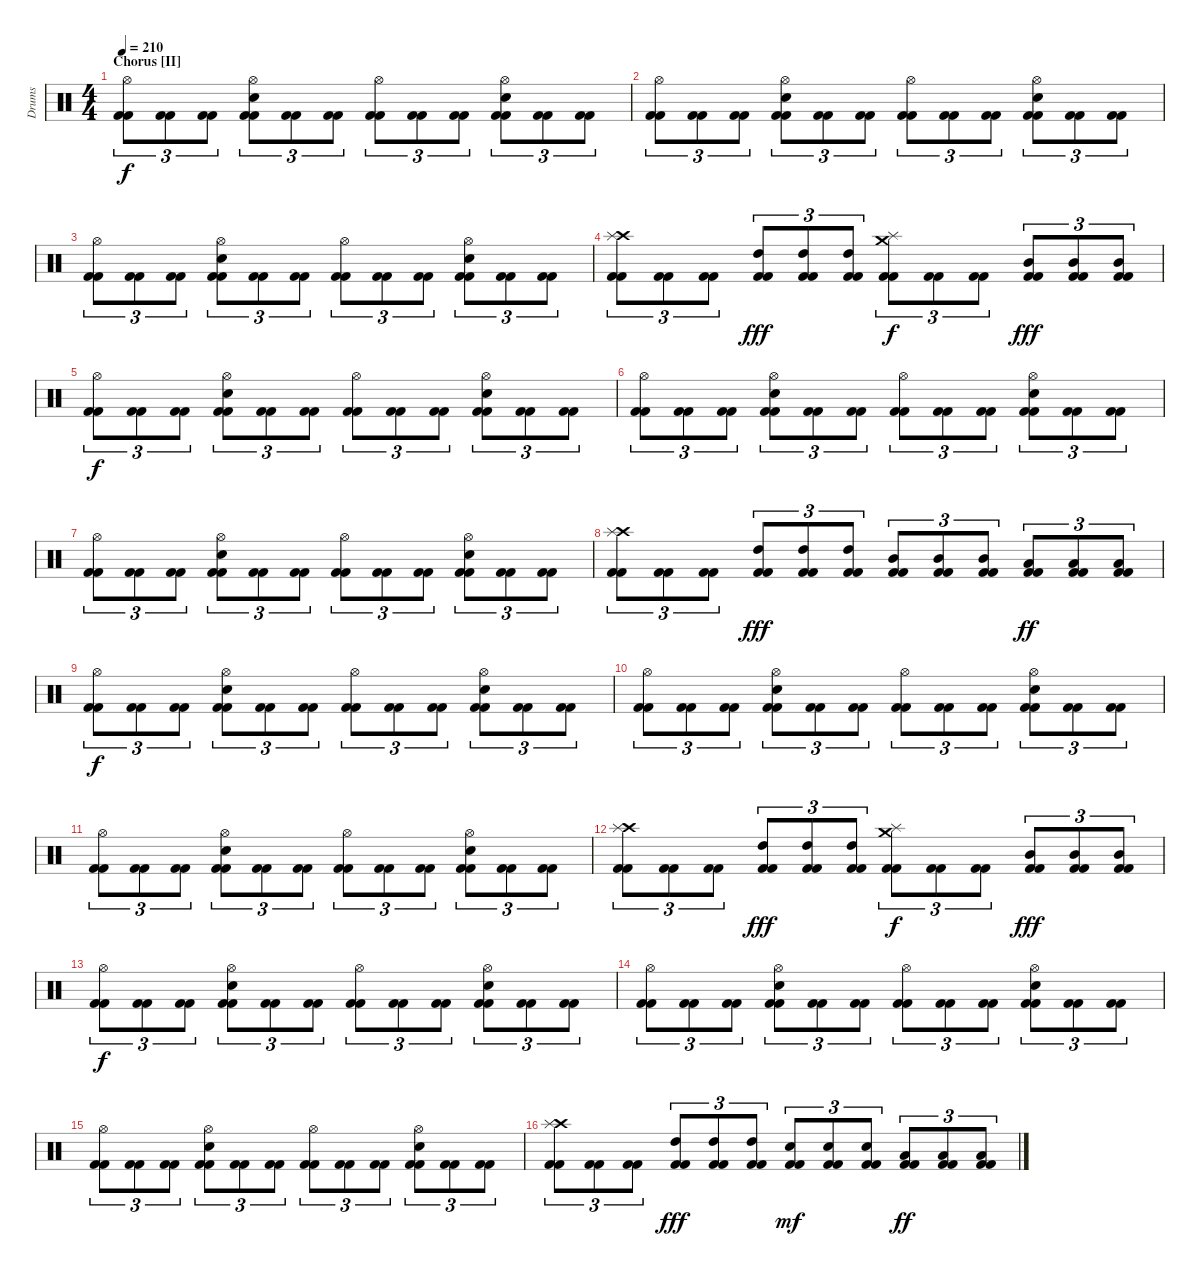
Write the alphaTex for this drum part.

\track ("Drums" "Drums") {instrument percussion}
\staff {score}
\articulation defaults
\ts (4 4)
\section ("" "Chorus [II]")
\tempo 210
\clef neutral
\ks c
("Hi-Hat (open)" "Kick (hit) 2" "Kick (hit) 2").8{tu (3 2) dy f} ("Kick (hit) 2" "Kick (hit) 2").8{tu (3 2)} ("Kick (hit) 2" "Kick (hit) 2").8{tu (3 2)} ("Hi-Hat (open)" "Snare (hit) 2" "Kick (hit) 2" "Kick (hit) 2").8{tu (3 2)} ("Kick (hit) 2" "Kick (hit) 2").8{tu (3 2)} ("Kick (hit) 2" "Kick (hit) 2").8{tu (3 2)} ("Hi-Hat (open)" "Kick (hit) 2" "Kick (hit) 2").8{tu (3 2)} ("Kick (hit) 2" "Kick (hit) 2").8{tu (3 2)} ("Kick (hit) 2" "Kick (hit) 2").8{tu (3 2)} ("Hi-Hat (open)" "Snare (hit) 2" "Kick (hit) 2" "Kick (hit) 2").8{tu (3 2)} ("Kick (hit) 2" "Kick (hit) 2").8{tu (3 2)} ("Kick (hit) 2" "Kick (hit) 2").8{tu (3 2)} |
("Hi-Hat (open)" "Kick (hit) 2" "Kick (hit) 2").8{tu (3 2)} ("Kick (hit) 2" "Kick (hit) 2").8{tu (3 2)} ("Kick (hit) 2" "Kick (hit) 2").8{tu (3 2)} ("Hi-Hat (open)" "Snare (hit) 2" "Kick (hit) 2" "Kick (hit) 2").8{tu (3 2)} ("Kick (hit) 2" "Kick (hit) 2").8{tu (3 2)} ("Kick (hit) 2" "Kick (hit) 2").8{tu (3 2)} ("Hi-Hat (open)" "Kick (hit) 2" "Kick (hit) 2").8{tu (3 2)} ("Kick (hit) 2" "Kick (hit) 2").8{tu (3 2)} ("Kick (hit) 2" "Kick (hit) 2").8{tu (3 2)} ("Hi-Hat (open)" "Snare (hit) 2" "Kick (hit) 2" "Kick (hit) 2").8{tu (3 2)} ("Kick (hit) 2" "Kick (hit) 2").8{tu (3 2)} ("Kick (hit) 2" "Kick (hit) 2").8{tu (3 2)} |
("Hi-Hat (open)" "Kick (hit) 2" "Kick (hit) 2").8{tu (3 2)} ("Kick (hit) 2" "Kick (hit) 2").8{tu (3 2)} ("Kick (hit) 2" "Kick (hit) 2").8{tu (3 2)} ("Hi-Hat (open)" "Snare (hit) 2" "Kick (hit) 2" "Kick (hit) 2").8{tu (3 2)} ("Kick (hit) 2" "Kick (hit) 2").8{tu (3 2)} ("Kick (hit) 2" "Kick (hit) 2").8{tu (3 2)} ("Hi-Hat (open)" "Kick (hit) 2" "Kick (hit) 2").8{tu (3 2)} ("Kick (hit) 2" "Kick (hit) 2").8{tu (3 2)} ("Kick (hit) 2" "Kick (hit) 2").8{tu (3 2)} ("Hi-Hat (open)" "Snare (hit) 2" "Kick (hit) 2" "Kick (hit) 2").8{tu (3 2)} ("Kick (hit) 2" "Kick (hit) 2").8{tu (3 2)} ("Kick (hit) 2" "Kick (hit) 2").8{tu (3 2)} |
("Crash high (hit)" "Splash (hit)" "Kick (hit) 2" "Kick (hit) 2").8{tu (3 2)} ("Kick (hit) 2" "Kick (hit) 2").8{tu (3 2)} ("Kick (hit) 2" "Kick (hit) 2").8{tu (3 2)} ("High Tom (hit)" "Kick (hit) 2" "Kick (hit) 2").8{tu (3 2) dy fff} ("High Tom (hit)" "Kick (hit) 2" "Kick (hit) 2").8{tu (3 2)} ("High Tom (hit)" "Kick (hit) 2" "Kick (hit) 2").8{tu (3 2)} ("Crash medium (hit)" "Splash (hit)" "Kick (hit) 2" "Kick (hit) 2").8{tu (3 2) dy f} ("Kick (hit) 2" "Kick (hit) 2").8{tu (3 2)} ("Kick (hit) 2" "Kick (hit) 2").8{tu (3 2)} ("Mid Tom (hit)" "Kick (hit) 2" "Kick (hit) 2").8{tu (3 2) dy fff} ("Mid Tom (hit)" "Kick (hit) 2" "Kick (hit) 2").8{tu (3 2)} ("Mid Tom (hit)" "Kick (hit) 2" "Kick (hit) 2").8{tu (3 2)} |
("Hi-Hat (open)" "Kick (hit) 2" "Kick (hit) 2").8{tu (3 2) dy f} ("Kick (hit) 2" "Kick (hit) 2").8{tu (3 2)} ("Kick (hit) 2" "Kick (hit) 2").8{tu (3 2)} ("Hi-Hat (open)" "Snare (hit) 2" "Kick (hit) 2" "Kick (hit) 2").8{tu (3 2)} ("Kick (hit) 2" "Kick (hit) 2").8{tu (3 2)} ("Kick (hit) 2" "Kick (hit) 2").8{tu (3 2)} ("Hi-Hat (open)" "Kick (hit) 2" "Kick (hit) 2").8{tu (3 2)} ("Kick (hit) 2" "Kick (hit) 2").8{tu (3 2)} ("Kick (hit) 2" "Kick (hit) 2").8{tu (3 2)} ("Hi-Hat (open)" "Snare (hit) 2" "Kick (hit) 2" "Kick (hit) 2").8{tu (3 2)} ("Kick (hit) 2" "Kick (hit) 2").8{tu (3 2)} ("Kick (hit) 2" "Kick (hit) 2").8{tu (3 2)} |
("Hi-Hat (open)" "Kick (hit) 2" "Kick (hit) 2").8{tu (3 2)} ("Kick (hit) 2" "Kick (hit) 2").8{tu (3 2)} ("Kick (hit) 2" "Kick (hit) 2").8{tu (3 2)} ("Hi-Hat (open)" "Snare (hit) 2" "Kick (hit) 2" "Kick (hit) 2").8{tu (3 2)} ("Kick (hit) 2" "Kick (hit) 2").8{tu (3 2)} ("Kick (hit) 2" "Kick (hit) 2").8{tu (3 2)} ("Hi-Hat (open)" "Kick (hit) 2" "Kick (hit) 2").8{tu (3 2)} ("Kick (hit) 2" "Kick (hit) 2").8{tu (3 2)} ("Kick (hit) 2" "Kick (hit) 2").8{tu (3 2)} ("Hi-Hat (open)" "Snare (hit) 2" "Kick (hit) 2" "Kick (hit) 2").8{tu (3 2)} ("Kick (hit) 2" "Kick (hit) 2").8{tu (3 2)} ("Kick (hit) 2" "Kick (hit) 2").8{tu (3 2)} |
("Hi-Hat (open)" "Kick (hit) 2" "Kick (hit) 2").8{tu (3 2)} ("Kick (hit) 2" "Kick (hit) 2").8{tu (3 2)} ("Kick (hit) 2" "Kick (hit) 2").8{tu (3 2)} ("Hi-Hat (open)" "Snare (hit) 2" "Kick (hit) 2" "Kick (hit) 2").8{tu (3 2)} ("Kick (hit) 2" "Kick (hit) 2").8{tu (3 2)} ("Kick (hit) 2" "Kick (hit) 2").8{tu (3 2)} ("Hi-Hat (open)" "Kick (hit) 2" "Kick (hit) 2").8{tu (3 2)} ("Kick (hit) 2" "Kick (hit) 2").8{tu (3 2)} ("Kick (hit) 2" "Kick (hit) 2").8{tu (3 2)} ("Hi-Hat (open)" "Snare (hit) 2" "Kick (hit) 2" "Kick (hit) 2").8{tu (3 2)} ("Kick (hit) 2" "Kick (hit) 2").8{tu (3 2)} ("Kick (hit) 2" "Kick (hit) 2").8{tu (3 2)} |
("Crash high (hit)" "Splash (hit)" "Kick (hit) 2" "Kick (hit) 2").8{tu (3 2)} ("Kick (hit) 2" "Kick (hit) 2").8{tu (3 2)} ("Kick (hit) 2" "Kick (hit) 2").8{tu (3 2)} ("High Tom (hit)" "Kick (hit) 2" "Kick (hit) 2").8{tu (3 2) dy fff} ("High Tom (hit)" "Kick (hit) 2" "Kick (hit) 2").8{tu (3 2)} ("High Tom (hit)" "Kick (hit) 2" "Kick (hit) 2").8{tu (3 2)} ("Mid Tom (hit)" "Kick (hit) 2" "Kick (hit) 2").8{tu (3 2)} ("Mid Tom (hit)" "Kick (hit) 2" "Kick (hit) 2").8{tu (3 2)} ("Mid Tom (hit)" "Kick (hit) 2" "Kick (hit) 2").8{tu (3 2)} ("Low Tom (hit)" "Kick (hit) 2" "Kick (hit) 2").8{tu (3 2) dy ff} ("Low Tom (hit)" "Kick (hit) 2" "Kick (hit) 2").8{tu (3 2)} ("Low Tom (hit)" "Kick (hit) 2" "Kick (hit) 2").8{tu (3 2)} |
("Hi-Hat (open)" "Kick (hit) 2" "Kick (hit) 2").8{tu (3 2) dy f} ("Kick (hit) 2" "Kick (hit) 2").8{tu (3 2)} ("Kick (hit) 2" "Kick (hit) 2").8{tu (3 2)} ("Hi-Hat (open)" "Snare (hit) 2" "Kick (hit) 2" "Kick (hit) 2").8{tu (3 2)} ("Kick (hit) 2" "Kick (hit) 2").8{tu (3 2)} ("Kick (hit) 2" "Kick (hit) 2").8{tu (3 2)} ("Hi-Hat (open)" "Kick (hit) 2" "Kick (hit) 2").8{tu (3 2)} ("Kick (hit) 2" "Kick (hit) 2").8{tu (3 2)} ("Kick (hit) 2" "Kick (hit) 2").8{tu (3 2)} ("Hi-Hat (open)" "Snare (hit) 2" "Kick (hit) 2" "Kick (hit) 2").8{tu (3 2)} ("Kick (hit) 2" "Kick (hit) 2").8{tu (3 2)} ("Kick (hit) 2" "Kick (hit) 2").8{tu (3 2)} |
("Hi-Hat (open)" "Kick (hit) 2" "Kick (hit) 2").8{tu (3 2)} ("Kick (hit) 2" "Kick (hit) 2").8{tu (3 2)} ("Kick (hit) 2" "Kick (hit) 2").8{tu (3 2)} ("Hi-Hat (open)" "Snare (hit) 2" "Kick (hit) 2" "Kick (hit) 2").8{tu (3 2)} ("Kick (hit) 2" "Kick (hit) 2").8{tu (3 2)} ("Kick (hit) 2" "Kick (hit) 2").8{tu (3 2)} ("Hi-Hat (open)" "Kick (hit) 2" "Kick (hit) 2").8{tu (3 2)} ("Kick (hit) 2" "Kick (hit) 2").8{tu (3 2)} ("Kick (hit) 2" "Kick (hit) 2").8{tu (3 2)} ("Hi-Hat (open)" "Snare (hit) 2" "Kick (hit) 2" "Kick (hit) 2").8{tu (3 2)} ("Kick (hit) 2" "Kick (hit) 2").8{tu (3 2)} ("Kick (hit) 2" "Kick (hit) 2").8{tu (3 2)} |
("Hi-Hat (open)" "Kick (hit) 2" "Kick (hit) 2").8{tu (3 2)} ("Kick (hit) 2" "Kick (hit) 2").8{tu (3 2)} ("Kick (hit) 2" "Kick (hit) 2").8{tu (3 2)} ("Hi-Hat (open)" "Snare (hit) 2" "Kick (hit) 2" "Kick (hit) 2").8{tu (3 2)} ("Kick (hit) 2" "Kick (hit) 2").8{tu (3 2)} ("Kick (hit) 2" "Kick (hit) 2").8{tu (3 2)} ("Hi-Hat (open)" "Kick (hit) 2" "Kick (hit) 2").8{tu (3 2)} ("Kick (hit) 2" "Kick (hit) 2").8{tu (3 2)} ("Kick (hit) 2" "Kick (hit) 2").8{tu (3 2)} ("Hi-Hat (open)" "Snare (hit) 2" "Kick (hit) 2" "Kick (hit) 2").8{tu (3 2)} ("Kick (hit) 2" "Kick (hit) 2").8{tu (3 2)} ("Kick (hit) 2" "Kick (hit) 2").8{tu (3 2)} |
("Crash high (hit)" "Splash (hit)" "Kick (hit) 2" "Kick (hit) 2").8{tu (3 2)} ("Kick (hit) 2" "Kick (hit) 2").8{tu (3 2)} ("Kick (hit) 2" "Kick (hit) 2").8{tu (3 2)} ("High Tom (hit)" "Kick (hit) 2" "Kick (hit) 2").8{tu (3 2) dy fff} ("High Tom (hit)" "Kick (hit) 2" "Kick (hit) 2").8{tu (3 2)} ("High Tom (hit)" "Kick (hit) 2" "Kick (hit) 2").8{tu (3 2)} ("Crash medium (hit)" "Splash (hit)" "Kick (hit) 2" "Kick (hit) 2").8{tu (3 2) dy f} ("Kick (hit) 2" "Kick (hit) 2").8{tu (3 2)} ("Kick (hit) 2" "Kick (hit) 2").8{tu (3 2)} ("Mid Tom (hit)" "Kick (hit) 2" "Kick (hit) 2").8{tu (3 2) dy fff} ("Mid Tom (hit)" "Kick (hit) 2" "Kick (hit) 2").8{tu (3 2)} ("Mid Tom (hit)" "Kick (hit) 2" "Kick (hit) 2").8{tu (3 2)} |
("Hi-Hat (open)" "Kick (hit) 2" "Kick (hit) 2").8{tu (3 2) dy f} ("Kick (hit) 2" "Kick (hit) 2").8{tu (3 2)} ("Kick (hit) 2" "Kick (hit) 2").8{tu (3 2)} ("Hi-Hat (open)" "Snare (hit) 2" "Kick (hit) 2" "Kick (hit) 2").8{tu (3 2)} ("Kick (hit) 2" "Kick (hit) 2").8{tu (3 2)} ("Kick (hit) 2" "Kick (hit) 2").8{tu (3 2)} ("Hi-Hat (open)" "Kick (hit) 2" "Kick (hit) 2").8{tu (3 2)} ("Kick (hit) 2" "Kick (hit) 2").8{tu (3 2)} ("Kick (hit) 2" "Kick (hit) 2").8{tu (3 2)} ("Hi-Hat (open)" "Snare (hit) 2" "Kick (hit) 2" "Kick (hit) 2").8{tu (3 2)} ("Kick (hit) 2" "Kick (hit) 2").8{tu (3 2)} ("Kick (hit) 2" "Kick (hit) 2").8{tu (3 2)} |
("Hi-Hat (open)" "Kick (hit) 2" "Kick (hit) 2").8{tu (3 2)} ("Kick (hit) 2" "Kick (hit) 2").8{tu (3 2)} ("Kick (hit) 2" "Kick (hit) 2").8{tu (3 2)} ("Hi-Hat (open)" "Snare (hit) 2" "Kick (hit) 2" "Kick (hit) 2").8{tu (3 2)} ("Kick (hit) 2" "Kick (hit) 2").8{tu (3 2)} ("Kick (hit) 2" "Kick (hit) 2").8{tu (3 2)} ("Hi-Hat (open)" "Kick (hit) 2" "Kick (hit) 2").8{tu (3 2)} ("Kick (hit) 2" "Kick (hit) 2").8{tu (3 2)} ("Kick (hit) 2" "Kick (hit) 2").8{tu (3 2)} ("Hi-Hat (open)" "Snare (hit) 2" "Kick (hit) 2" "Kick (hit) 2").8{tu (3 2)} ("Kick (hit) 2" "Kick (hit) 2").8{tu (3 2)} ("Kick (hit) 2" "Kick (hit) 2").8{tu (3 2)} |
("Hi-Hat (open)" "Kick (hit) 2" "Kick (hit) 2").8{tu (3 2)} ("Kick (hit) 2" "Kick (hit) 2").8{tu (3 2)} ("Kick (hit) 2" "Kick (hit) 2").8{tu (3 2)} ("Hi-Hat (open)" "Snare (hit) 2" "Kick (hit) 2" "Kick (hit) 2").8{tu (3 2)} ("Kick (hit) 2" "Kick (hit) 2").8{tu (3 2)} ("Kick (hit) 2" "Kick (hit) 2").8{tu (3 2)} ("Hi-Hat (open)" "Kick (hit) 2" "Kick (hit) 2").8{tu (3 2)} ("Kick (hit) 2" "Kick (hit) 2").8{tu (3 2)} ("Kick (hit) 2" "Kick (hit) 2").8{tu (3 2)} ("Hi-Hat (open)" "Snare (hit) 2" "Kick (hit) 2" "Kick (hit) 2").8{tu (3 2)} ("Kick (hit) 2" "Kick (hit) 2").8{tu (3 2)} ("Kick (hit) 2" "Kick (hit) 2").8{tu (3 2)} |
("Crash high (hit)" "Splash (hit)" "Kick (hit) 2" "Kick (hit) 2").8{tu (3 2)} ("Kick (hit) 2" "Kick (hit) 2").8{tu (3 2)} ("Kick (hit) 2" "Kick (hit) 2").8{tu (3 2)} ("High Tom (hit)" "Kick (hit) 2" "Kick (hit) 2").8{tu (3 2) dy fff} ("High Tom (hit)" "Kick (hit) 2" "Kick (hit) 2").8{tu (3 2)} ("High Tom (hit)" "Kick (hit) 2" "Kick (hit) 2").8{tu (3 2)} ("Snare (hit) 2" "Kick (hit) 2" "Kick (hit) 2").8{tu (3 2) dy mf} ("Snare (hit) 2" "Kick (hit) 2" "Kick (hit) 2").8{tu (3 2)} ("Snare (hit) 2" "Kick (hit) 2" "Kick (hit) 2").8{tu (3 2)} ("Low Tom (hit)" "Kick (hit) 2" "Kick (hit) 2").8{tu (3 2) dy ff} ("Low Tom (hit)" "Kick (hit) 2" "Kick (hit) 2").8{tu (3 2)} ("Low Tom (hit)" "Kick (hit) 2" "Kick (hit) 2").8{tu (3 2)}
